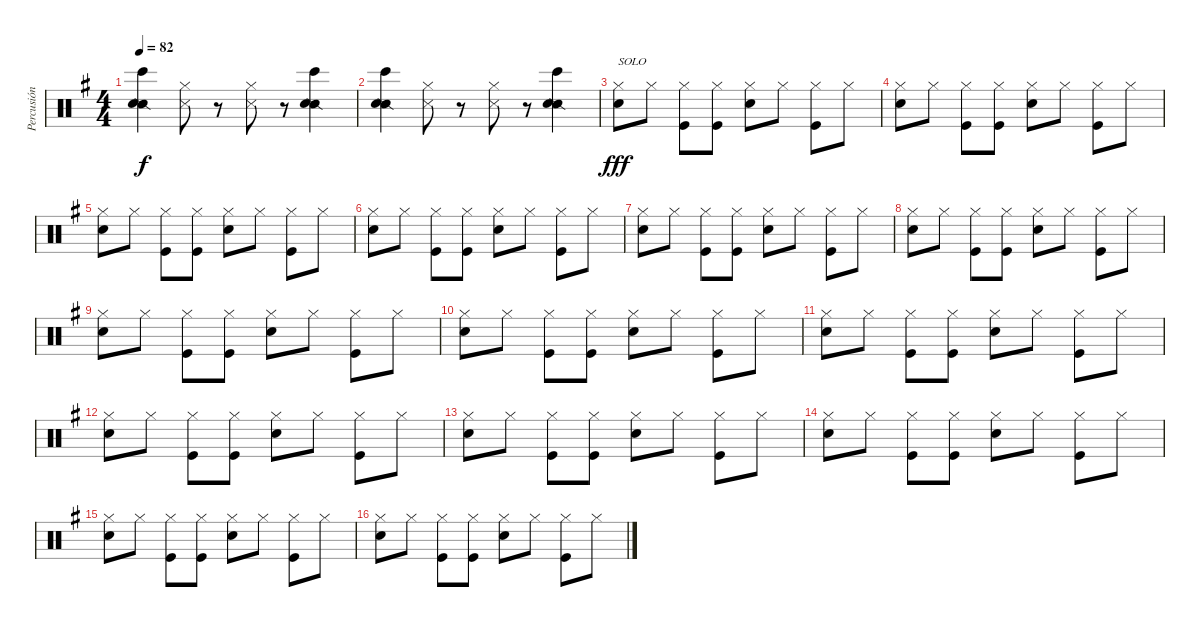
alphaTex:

\track ("Percusión" "Percusión") {instrument percussion}
\staff {score}
\articulation defaults
\ts (4 4)
\tempo 82
\clef neutral
\ks eminor
("Bongo High (hit)" "Snare (side stick) 2" "Hand Clap (hit)").4{dy f} ("Hi-Hat (closed)" "Snare (side stick) 3").8 r.8 ("Hi-Hat (closed)" "Snare (side stick) 3").8 r.8 ("Bongo High (hit)" "Snare (side stick) 2" "Hand Clap (hit)").4 |
("Bongo High (hit)" "Snare (side stick) 2" "Hand Clap (hit)").4 ("Hi-Hat (closed)" "Snare (side stick) 3").8 r.8 ("Hi-Hat (closed)" "Snare (side stick) 3").8 r.8 ("Bongo High (hit)" "Snare (side stick) 2" "Hand Clap (hit)").4 |
("Hi-Hat (closed)" "Snare (hit) 2").8{txt "SOLO" dy fff} "Hi-Hat (closed)".8 ("Hi-Hat (closed)" "Kick (hit)").8 ("Hi-Hat (closed)" "Kick (hit)").8 ("Hi-Hat (closed)" "Snare (hit) 2").8 "Hi-Hat (closed)".8 ("Hi-Hat (closed)" "Kick (hit)").8 "Hi-Hat (closed)".8 |
("Hi-Hat (closed)" "Snare (hit) 2").8 "Hi-Hat (closed)".8 ("Hi-Hat (closed)" "Kick (hit)").8 ("Hi-Hat (closed)" "Kick (hit)").8 ("Hi-Hat (closed)" "Snare (hit) 2").8 "Hi-Hat (closed)".8 ("Hi-Hat (closed)" "Kick (hit)").8 "Hi-Hat (closed)".8 |
("Hi-Hat (closed)" "Snare (hit) 2").8 "Hi-Hat (closed)".8 ("Hi-Hat (closed)" "Kick (hit)").8 ("Hi-Hat (closed)" "Kick (hit)").8 ("Hi-Hat (closed)" "Snare (hit) 2").8 "Hi-Hat (closed)".8 ("Hi-Hat (closed)" "Kick (hit)").8 "Hi-Hat (closed)".8 |
("Hi-Hat (closed)" "Snare (hit) 2").8 "Hi-Hat (closed)".8 ("Hi-Hat (closed)" "Kick (hit)").8 ("Hi-Hat (closed)" "Kick (hit)").8 ("Hi-Hat (closed)" "Snare (hit) 2").8 "Hi-Hat (closed)".8 ("Hi-Hat (closed)" "Kick (hit)").8 "Hi-Hat (closed)".8 |
("Hi-Hat (closed)" "Snare (hit) 2").8 "Hi-Hat (closed)".8 ("Hi-Hat (closed)" "Kick (hit)").8 ("Hi-Hat (closed)" "Kick (hit)").8 ("Hi-Hat (closed)" "Snare (hit) 2").8 "Hi-Hat (closed)".8 ("Hi-Hat (closed)" "Kick (hit)").8 "Hi-Hat (closed)".8 |
("Hi-Hat (closed)" "Snare (hit) 2").8 "Hi-Hat (closed)".8 ("Hi-Hat (closed)" "Kick (hit)").8 ("Hi-Hat (closed)" "Kick (hit)").8 ("Hi-Hat (closed)" "Snare (hit) 2").8 "Hi-Hat (closed)".8 ("Hi-Hat (closed)" "Kick (hit)").8 "Hi-Hat (closed)".8 |
("Hi-Hat (closed)" "Snare (hit) 2").8 "Hi-Hat (closed)".8 ("Hi-Hat (closed)" "Kick (hit)").8 ("Hi-Hat (closed)" "Kick (hit)").8 ("Hi-Hat (closed)" "Snare (hit) 2").8 "Hi-Hat (closed)".8 ("Hi-Hat (closed)" "Kick (hit)").8 "Hi-Hat (closed)".8 |
("Hi-Hat (closed)" "Snare (hit) 2").8 "Hi-Hat (closed)".8 ("Hi-Hat (closed)" "Kick (hit)").8 ("Hi-Hat (closed)" "Kick (hit)").8 ("Hi-Hat (closed)" "Snare (hit) 2").8 "Hi-Hat (closed)".8 ("Hi-Hat (closed)" "Kick (hit)").8 "Hi-Hat (closed)".8 |
("Hi-Hat (closed)" "Snare (hit) 2").8 "Hi-Hat (closed)".8 ("Hi-Hat (closed)" "Kick (hit)").8 ("Hi-Hat (closed)" "Kick (hit)").8 ("Hi-Hat (closed)" "Snare (hit) 2").8 "Hi-Hat (closed)".8 ("Hi-Hat (closed)" "Kick (hit)").8 "Hi-Hat (closed)".8 |
("Hi-Hat (closed)" "Snare (hit) 2").8 "Hi-Hat (closed)".8 ("Hi-Hat (closed)" "Kick (hit)").8 ("Hi-Hat (closed)" "Kick (hit)").8 ("Hi-Hat (closed)" "Snare (hit) 2").8 "Hi-Hat (closed)".8 ("Hi-Hat (closed)" "Kick (hit)").8 "Hi-Hat (closed)".8 |
("Hi-Hat (closed)" "Snare (hit) 2").8 "Hi-Hat (closed)".8 ("Hi-Hat (closed)" "Kick (hit)").8 ("Hi-Hat (closed)" "Kick (hit)").8 ("Hi-Hat (closed)" "Snare (hit) 2").8 "Hi-Hat (closed)".8 ("Hi-Hat (closed)" "Kick (hit)").8 "Hi-Hat (closed)".8 |
("Hi-Hat (closed)" "Snare (hit) 2").8 "Hi-Hat (closed)".8 ("Hi-Hat (closed)" "Kick (hit)").8 ("Hi-Hat (closed)" "Kick (hit)").8 ("Hi-Hat (closed)" "Snare (hit) 2").8 "Hi-Hat (closed)".8 ("Hi-Hat (closed)" "Kick (hit)").8 "Hi-Hat (closed)".8 |
("Hi-Hat (closed)" "Snare (hit) 2").8 "Hi-Hat (closed)".8 ("Hi-Hat (closed)" "Kick (hit)").8 ("Hi-Hat (closed)" "Kick (hit)").8 ("Hi-Hat (closed)" "Snare (hit) 2").8 "Hi-Hat (closed)".8 ("Hi-Hat (closed)" "Kick (hit)").8 "Hi-Hat (closed)".8 |
("Hi-Hat (closed)" "Snare (hit) 2").8 "Hi-Hat (closed)".8 ("Hi-Hat (closed)" "Kick (hit)").8 ("Hi-Hat (closed)" "Kick (hit)").8 ("Hi-Hat (closed)" "Snare (hit) 2").8 "Hi-Hat (closed)".8 ("Hi-Hat (closed)" "Kick (hit)").8 "Hi-Hat (closed)".8
